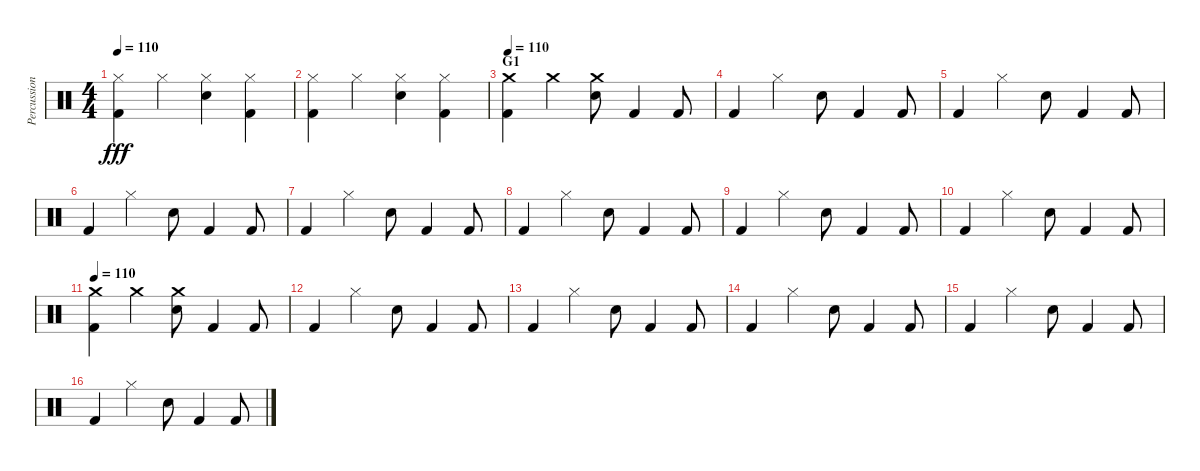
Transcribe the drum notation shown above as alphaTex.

\track ("Percussion" "Percussion") {instrument percussion}
\staff {score}
\articulation defaults
\ts (4 4)
\tempo 110
\clef neutral
\ks c
("Kick (hit) 2" "Hi-Hat (closed)").4{dy fff} "Hi-Hat (closed)".4 ("Electric Snare (hit)" "Hi-Hat (closed)").4 ("Kick (hit) 2" "Hi-Hat (closed)").4 |
("Kick (hit) 2" "Hi-Hat (closed)").4 "Hi-Hat (closed)".4 ("Electric Snare (hit)" "Hi-Hat (closed)").4 ("Kick (hit) 2" "Hi-Hat (closed)").4 |
\section ("" "G1")
\tempo 110
("Kick (hit) 2" "Crash medium (hit)").4 "Crash medium (hit)".4 ("Electric Snare (hit)" "Crash medium (hit)").8 "Kick (hit) 2".4 "Kick (hit) 2".8 |
"Kick (hit) 2".4 "Hi-Hat (closed)".4 "Electric Snare (hit)".8 "Kick (hit) 2".4 "Kick (hit) 2".8 |
"Kick (hit) 2".4 "Hi-Hat (closed)".4 "Electric Snare (hit)".8 "Kick (hit) 2".4 "Kick (hit) 2".8 |
"Kick (hit) 2".4 "Hi-Hat (closed)".4 "Electric Snare (hit)".8 "Kick (hit) 2".4 "Kick (hit) 2".8 |
"Kick (hit) 2".4 "Hi-Hat (closed)".4 "Electric Snare (hit)".8 "Kick (hit) 2".4 "Kick (hit) 2".8 |
"Kick (hit) 2".4 "Hi-Hat (closed)".4 "Electric Snare (hit)".8 "Kick (hit) 2".4 "Kick (hit) 2".8 |
"Kick (hit) 2".4 "Hi-Hat (closed)".4 "Electric Snare (hit)".8 "Kick (hit) 2".4 "Kick (hit) 2".8 |
"Kick (hit) 2".4 "Hi-Hat (closed)".4 "Electric Snare (hit)".8 "Kick (hit) 2".4 "Kick (hit) 2".8 |
\tempo 110
("Kick (hit) 2" "Crash medium (hit)").4 "Crash medium (hit)".4 ("Electric Snare (hit)" "Crash medium (hit)").8 "Kick (hit) 2".4 "Kick (hit) 2".8 |
"Kick (hit) 2".4 "Hi-Hat (closed)".4 "Electric Snare (hit)".8 "Kick (hit) 2".4 "Kick (hit) 2".8 |
"Kick (hit) 2".4 "Hi-Hat (closed)".4 "Electric Snare (hit)".8 "Kick (hit) 2".4 "Kick (hit) 2".8 |
"Kick (hit) 2".4 "Hi-Hat (closed)".4 "Electric Snare (hit)".8 "Kick (hit) 2".4 "Kick (hit) 2".8 |
"Kick (hit) 2".4 "Hi-Hat (closed)".4 "Electric Snare (hit)".8 "Kick (hit) 2".4 "Kick (hit) 2".8 |
"Kick (hit) 2".4 "Hi-Hat (closed)".4 "Electric Snare (hit)".8 "Kick (hit) 2".4 "Kick (hit) 2".8
